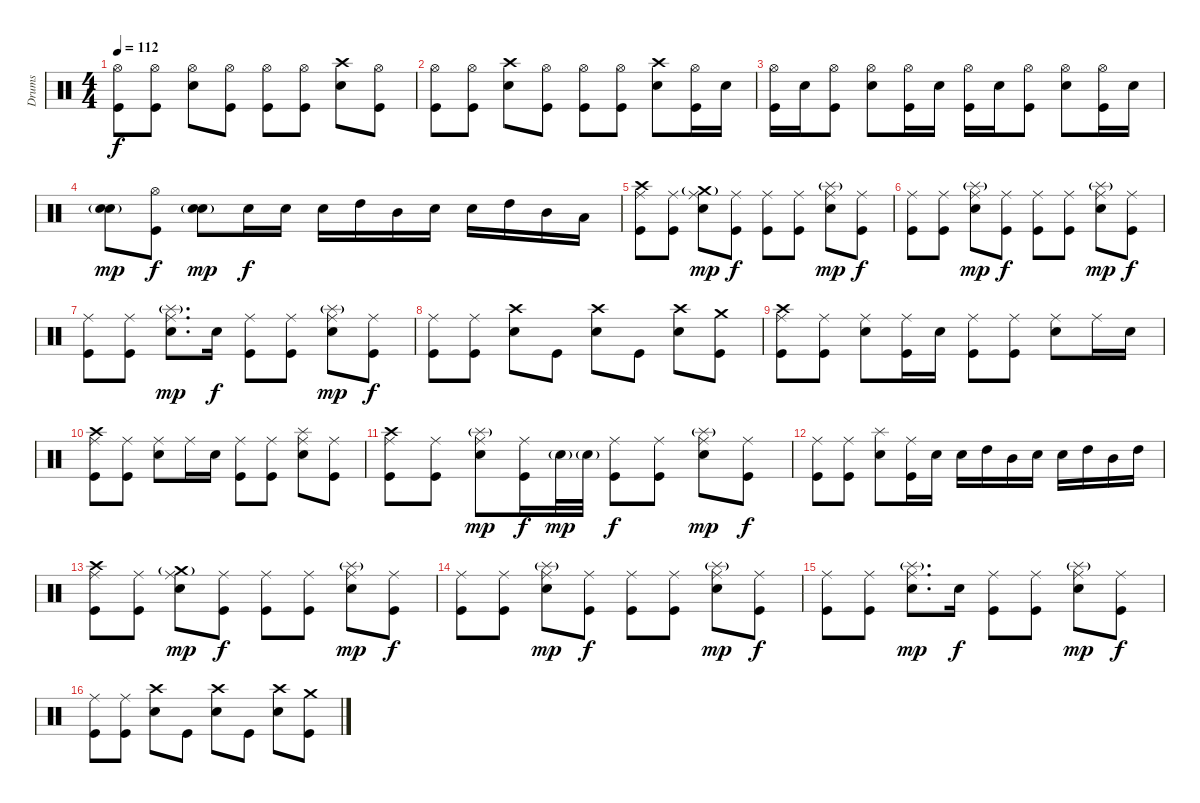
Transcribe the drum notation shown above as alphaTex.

\track ("Drums" "Drums") {instrument percussion}
\staff {score}
\articulation defaults
\ts (4 4)
\tempo 112
\clef neutral
\ks c
("Hi-Hat (open)" "Kick (hit)").8{dy f} ("Hi-Hat (open)" "Kick (hit)").8 ("Hi-Hat (open)" "Electric Snare (hit)").8 ("Hi-Hat (open)" "Kick (hit)").8 ("Hi-Hat (open)" "Kick (hit)").8 ("Hi-Hat (open)" "Kick (hit)").8 ("Crash high (hit)" "Electric Snare (hit)").8 ("Hi-Hat (open)" "Kick (hit)").8 |
("Hi-Hat (open)" "Kick (hit)").8 ("Hi-Hat (open)" "Kick (hit)").8 ("Crash high (hit)" "Electric Snare (hit)").8 ("Hi-Hat (open)" "Kick (hit)").8 ("Hi-Hat (open)" "Kick (hit)").8 ("Hi-Hat (open)" "Kick (hit)").8 ("Crash high (hit)" "Electric Snare (hit)").8 ("Hi-Hat (open)" "Kick (hit)").16 "Electric Snare (hit)".16 |
("Hi-Hat (open)" "Kick (hit)").16 "Electric Snare (hit)".16 ("Hi-Hat (open)" "Kick (hit)").8 ("Hi-Hat (open)" "Electric Snare (hit)").8 ("Hi-Hat (open)" "Kick (hit)").16 "Electric Snare (hit)".16 ("Hi-Hat (open)" "Kick (hit)").16 "Electric Snare (hit)".16 ("Hi-Hat (open)" "Kick (hit)").8 ("Hi-Hat (open)" "Electric Snare (hit)").8 ("Hi-Hat (open)" "Kick (hit)").16 "Electric Snare (hit)".16 |
("Electric Snare (hit)"{g} "Electric Snare (hit)").8{bd 480 dy mp} ("Hi-Hat (open)" "Kick (hit)").8{dy f} ("Electric Snare (hit)"{g} "Electric Snare (hit)").8{bd 480 dy mp} "Electric Snare (hit)".16{dy f} "Electric Snare (hit)".16 "Electric Snare (hit)".16 "High Tom (hit)".16 "Mid Tom (hit)".16 "Electric Snare (hit)".16 "Electric Snare (hit)".16 "High Tom (hit)".16 "Mid Tom (hit)".16 "Low Tom (hit)".16 |
("Crash high (hit)" "Ride (middle)" "Kick (hit)").8 ("Ride (middle)" "Kick (hit)").8 ("Crash medium (hit)"{g} "Ride (middle)" "Electric Snare (hit)").8{dy mp} ("Ride (middle)" "Kick (hit)").8{dy f} ("Ride (middle)" "Kick (hit)").8 ("Ride (middle)" "Kick (hit)").8 ("Splash (hit)"{g} "Ride (middle)" "Electric Snare (hit)").8{dy mp} ("Ride (middle)" "Kick (hit)").8{dy f} |
("Ride (middle)" "Kick (hit)").8 ("Ride (middle)" "Kick (hit)").8 ("Splash (hit)"{g} "Ride (middle)" "Electric Snare (hit)").8{dy mp} ("Ride (middle)" "Kick (hit)").8{dy f} ("Ride (middle)" "Kick (hit)").8 ("Ride (middle)" "Kick (hit)").8 ("Splash (hit)"{g} "Ride (middle)" "Electric Snare (hit)").8{dy mp} ("Ride (middle)" "Kick (hit)").8{dy f} |
("Ride (middle)" "Kick (hit)").8 ("Ride (middle)" "Kick (hit)").8 ("Splash (hit)"{g} "Ride (middle)" "Electric Snare (hit)").8{d dy mp} "Electric Snare (hit)".16{dy f} ("Ride (middle)" "Kick (hit)").8 ("Ride (middle)" "Kick (hit)").8 ("Splash (hit)"{g} "Ride (middle)" "Electric Snare (hit)").8{dy mp} ("Ride (middle)" "Kick (hit)").8{dy f} |
("Ride (middle)" "Kick (hit)").8 ("Ride (middle)" "Kick (hit)").8 ("Crash high (hit)" "Electric Snare (hit)").8 "Kick (hit)".8 ("Crash high (hit)" "Electric Snare (hit)").8 "Kick (hit)".8 ("Crash high (hit)" "Electric Snare (hit)").8 ("Crash medium (hit)" "Kick (hit)").8 |
("Crash high (hit)" "Ride (middle)" "Kick (hit)").8 ("Ride (middle)" "Kick (hit)").8 ("Ride (middle)" "Electric Snare (hit)").8 ("Ride (middle)" "Kick (hit)").16 "Electric Snare (hit)".16 ("Ride (middle)" "Kick (hit)").8 ("Ride (middle)" "Kick (hit)").8 ("Ride (middle)" "Electric Snare (hit)").8 "Ride (middle)".16 "Electric Snare (hit)".16 |
("Crash high (hit)" "Ride (middle)" "Kick (hit)").8 ("Ride (middle)" "Kick (hit)").8 ("Ride (middle)" "Electric Snare (hit)").8 "Ride (middle)".16 "Electric Snare (hit)".16 ("Ride (middle)" "Kick (hit)").8 ("Ride (middle)" "Kick (hit)").8 ("Splash (hit)" "Ride (middle)" "Electric Snare (hit)").8 ("Ride (middle)" "Kick (hit)").8 |
("Crash high (hit)" "Ride (middle)" "Kick (hit)").8 ("Ride (middle)" "Kick (hit)").8 ("Splash (hit)"{g} "Ride (middle)" "Electric Snare (hit)").8{dy mp} ("Ride (middle)" "Kick (hit)").16{dy f} "Electric Snare (hit)"{g}.32{dy mp} "Electric Snare (hit)"{g}.32 ("Ride (middle)" "Kick (hit)").8{dy f} ("Ride (middle)" "Kick (hit)").8 ("Splash (hit)"{g} "Ride (middle)" "Electric Snare (hit)").8{dy mp} ("Ride (middle)" "Kick (hit)").8{dy f} |
("Ride (middle)" "Kick (hit)").8 ("Ride (middle)" "Kick (hit)").8 ("Splash (hit)" "Electric Snare (hit)").8 ("Ride (middle)" "Kick (hit)").16 "Electric Snare (hit)".16 "Electric Snare (hit)".16 "High Tom (hit)".16 "Mid Tom (hit)".16 "Electric Snare (hit)".16 "Electric Snare (hit)".16 "High Tom (hit)".16 "Mid Tom (hit)".16 "High Tom (hit)".16 |
("Crash high (hit)" "Ride (middle)" "Kick (hit)").8 ("Ride (middle)" "Kick (hit)").8 ("Crash medium (hit)"{g} "Ride (middle)" "Electric Snare (hit)").8{dy mp} ("Ride (middle)" "Kick (hit)").8{dy f} ("Ride (middle)" "Kick (hit)").8 ("Ride (middle)" "Kick (hit)").8 ("Splash (hit)"{g} "Ride (middle)" "Electric Snare (hit)").8{dy mp} ("Ride (middle)" "Kick (hit)").8{dy f} |
("Ride (middle)" "Kick (hit)").8 ("Ride (middle)" "Kick (hit)").8 ("Splash (hit)"{g} "Ride (middle)" "Electric Snare (hit)").8{dy mp} ("Ride (middle)" "Kick (hit)").8{dy f} ("Ride (middle)" "Kick (hit)").8 ("Ride (middle)" "Kick (hit)").8 ("Splash (hit)"{g} "Ride (middle)" "Electric Snare (hit)").8{dy mp} ("Ride (middle)" "Kick (hit)").8{dy f} |
("Ride (middle)" "Kick (hit)").8 ("Ride (middle)" "Kick (hit)").8 ("Splash (hit)"{g} "Ride (middle)" "Electric Snare (hit)").8{d dy mp} "Electric Snare (hit)".16{dy f} ("Ride (middle)" "Kick (hit)").8 ("Ride (middle)" "Kick (hit)").8 ("Splash (hit)"{g} "Ride (middle)" "Electric Snare (hit)").8{dy mp} ("Ride (middle)" "Kick (hit)").8{dy f} |
("Ride (middle)" "Kick (hit)").8 ("Ride (middle)" "Kick (hit)").8 ("Crash high (hit)" "Electric Snare (hit)").8 "Kick (hit)".8 ("Crash high (hit)" "Electric Snare (hit)").8 "Kick (hit)".8 ("Crash high (hit)" "Electric Snare (hit)").8 ("Crash medium (hit)" "Kick (hit)").8
